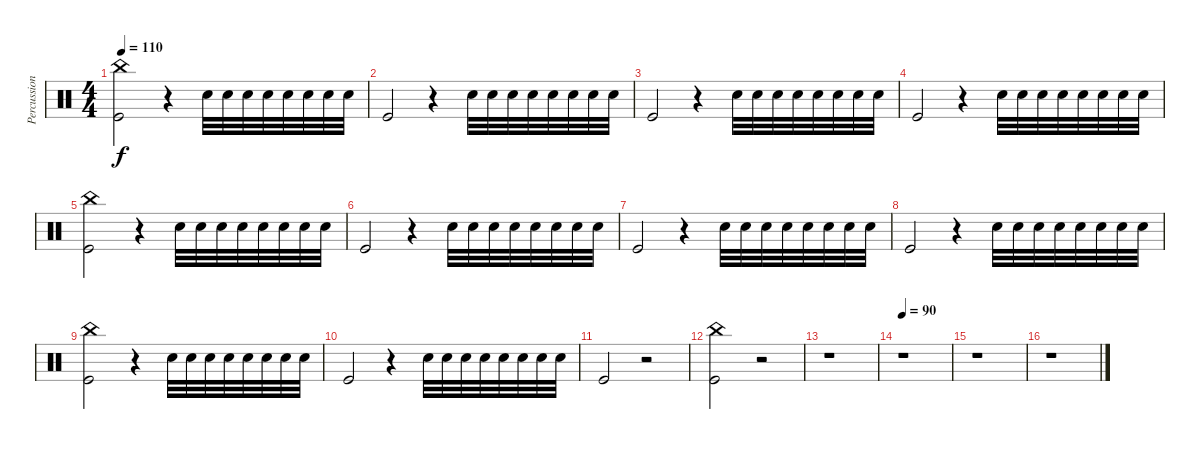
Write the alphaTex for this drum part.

\track ("Percussions" "Percussion") {instrument percussion}
\staff {score}
\articulation defaults
\ts (4 4)
\tempo 110
\clef neutral
\ks c
("China (hit)" "Kick (hit)").2{dy f} r.4 "Snare (hit) 2".32 "Snare (hit) 2".32 "Snare (hit) 2".32 "Snare (hit) 2".32 "Snare (hit) 2".32 "Snare (hit) 2".32 "Snare (hit) 2".32 "Snare (hit) 2".32 |
"Kick (hit)".2 r.4 "Snare (hit) 2".32 "Snare (hit) 2".32 "Snare (hit) 2".32 "Snare (hit) 2".32 "Snare (hit) 2".32 "Snare (hit) 2".32 "Snare (hit) 2".32 "Snare (hit) 2".32 |
"Kick (hit)".2 r.4 "Snare (hit) 2".32 "Snare (hit) 2".32 "Snare (hit) 2".32 "Snare (hit) 2".32 "Snare (hit) 2".32 "Snare (hit) 2".32 "Snare (hit) 2".32 "Snare (hit) 2".32 |
"Kick (hit)".2 r.4 "Snare (hit) 2".32 "Snare (hit) 2".32 "Snare (hit) 2".32 "Snare (hit) 2".32 "Snare (hit) 2".32 "Snare (hit) 2".32 "Snare (hit) 2".32 "Snare (hit) 2".32 |
("China (hit)" "Kick (hit)").2 r.4 "Snare (hit) 2".32 "Snare (hit) 2".32 "Snare (hit) 2".32 "Snare (hit) 2".32 "Snare (hit) 2".32 "Snare (hit) 2".32 "Snare (hit) 2".32 "Snare (hit) 2".32 |
"Kick (hit)".2 r.4 "Snare (hit) 2".32 "Snare (hit) 2".32 "Snare (hit) 2".32 "Snare (hit) 2".32 "Snare (hit) 2".32 "Snare (hit) 2".32 "Snare (hit) 2".32 "Snare (hit) 2".32 |
"Kick (hit)".2 r.4 "Snare (hit) 2".32 "Snare (hit) 2".32 "Snare (hit) 2".32 "Snare (hit) 2".32 "Snare (hit) 2".32 "Snare (hit) 2".32 "Snare (hit) 2".32 "Snare (hit) 2".32 |
"Kick (hit)".2 r.4 "Snare (hit) 2".32 "Snare (hit) 2".32 "Snare (hit) 2".32 "Snare (hit) 2".32 "Snare (hit) 2".32 "Snare (hit) 2".32 "Snare (hit) 2".32 "Snare (hit) 2".32 |
("China (hit)" "Kick (hit)").2 r.4 "Snare (hit) 2".32 "Snare (hit) 2".32 "Snare (hit) 2".32 "Snare (hit) 2".32 "Snare (hit) 2".32 "Snare (hit) 2".32 "Snare (hit) 2".32 "Snare (hit) 2".32 |
"Kick (hit)".2 r.4 "Snare (hit) 2".32 "Snare (hit) 2".32 "Snare (hit) 2".32 "Snare (hit) 2".32 "Snare (hit) 2".32 "Snare (hit) 2".32 "Snare (hit) 2".32 "Snare (hit) 2".32 |
"Kick (hit)".2 r.2 |
("China (hit)" "Kick (hit)").2 r.2 |
r.1 |
\tempo 90
r.1 |
r.1 |
r.1
